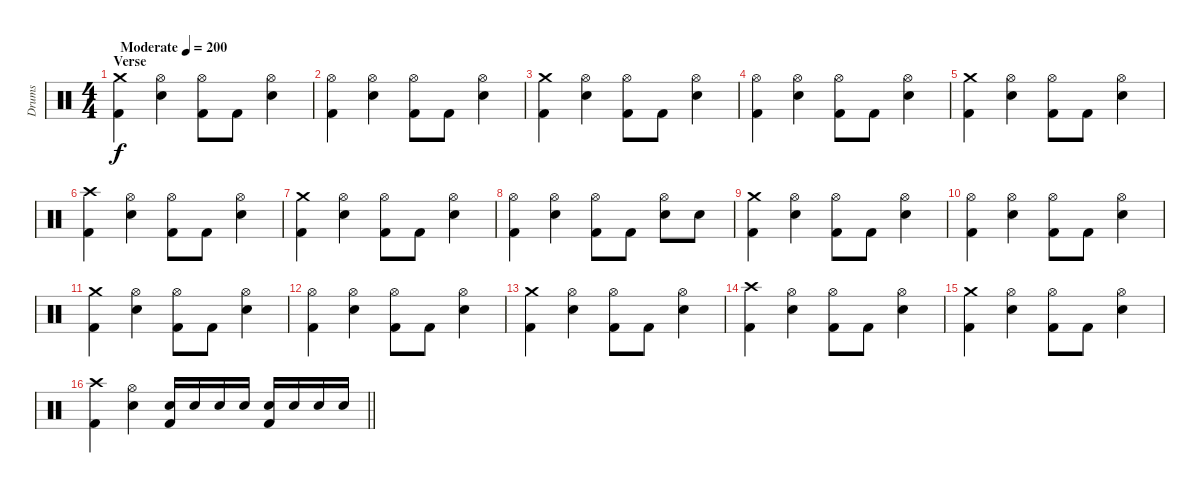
\track ("Drums" "Drums") {instrument percussion}
\staff {score}
\articulation defaults
\ts (4 4)
\section ("" "Verse")
\tempo (200 "Moderate")
\clef neutral
\ks c
("Crash medium (hit)" "Kick (hit) 2").4{dy f} ("Hi-Hat (open)" "Electric Snare (hit)").4 ("Hi-Hat (open)" "Kick (hit) 2").8 "Kick (hit) 2".8 ("Hi-Hat (open)" "Electric Snare (hit)").4 |
("Hi-Hat (open)" "Kick (hit) 2").4 ("Hi-Hat (open)" "Electric Snare (hit)").4 ("Hi-Hat (open)" "Kick (hit) 2").8 "Kick (hit) 2".8 ("Hi-Hat (open)" "Electric Snare (hit)").4 |
("Crash medium (hit)" "Kick (hit) 2").4 ("Hi-Hat (open)" "Electric Snare (hit)").4 ("Hi-Hat (open)" "Kick (hit) 2").8 "Kick (hit) 2".8 ("Hi-Hat (open)" "Electric Snare (hit)").4 |
("Hi-Hat (open)" "Kick (hit) 2").4 ("Hi-Hat (open)" "Electric Snare (hit)").4 ("Hi-Hat (open)" "Kick (hit) 2").8 "Kick (hit) 2".8 ("Hi-Hat (open)" "Electric Snare (hit)").4 |
("Crash medium (hit)" "Kick (hit) 2").4 ("Hi-Hat (open)" "Electric Snare (hit)").4 ("Hi-Hat (open)" "Kick (hit) 2").8 "Kick (hit) 2".8 ("Hi-Hat (open)" "Electric Snare (hit)").4 |
("Crash high (hit)" "Kick (hit) 2").4 ("Hi-Hat (open)" "Electric Snare (hit)").4 ("Hi-Hat (open)" "Kick (hit) 2").8 "Kick (hit) 2".8 ("Hi-Hat (open)" "Electric Snare (hit)").4 |
("Crash medium (hit)" "Kick (hit) 2").4 ("Hi-Hat (open)" "Electric Snare (hit)").4 ("Hi-Hat (open)" "Kick (hit) 2").8 "Kick (hit) 2".8 ("Hi-Hat (open)" "Electric Snare (hit)").4 |
("Hi-Hat (open)" "Kick (hit) 2").4 ("Hi-Hat (open)" "Electric Snare (hit)").4 ("Hi-Hat (open)" "Kick (hit) 2").8 "Kick (hit) 2".8 ("Hi-Hat (open)" "Electric Snare (hit)").8 "Electric Snare (hit)".8 |
("Crash medium (hit)" "Kick (hit) 2").4 ("Hi-Hat (open)" "Electric Snare (hit)").4 ("Hi-Hat (open)" "Kick (hit) 2").8 "Kick (hit) 2".8 ("Hi-Hat (open)" "Electric Snare (hit)").4 |
("Hi-Hat (open)" "Kick (hit) 2").4 ("Hi-Hat (open)" "Electric Snare (hit)").4 ("Hi-Hat (open)" "Kick (hit) 2").8 "Kick (hit) 2".8 ("Hi-Hat (open)" "Electric Snare (hit)").4 |
("Crash medium (hit)" "Kick (hit) 2").4 ("Hi-Hat (open)" "Electric Snare (hit)").4 ("Hi-Hat (open)" "Kick (hit) 2").8 "Kick (hit) 2".8 ("Hi-Hat (open)" "Electric Snare (hit)").4 |
("Hi-Hat (open)" "Kick (hit) 2").4 ("Hi-Hat (open)" "Electric Snare (hit)").4 ("Hi-Hat (open)" "Kick (hit) 2").8 "Kick (hit) 2".8 ("Hi-Hat (open)" "Electric Snare (hit)").4 |
("Crash medium (hit)" "Kick (hit) 2").4 ("Hi-Hat (open)" "Electric Snare (hit)").4 ("Hi-Hat (open)" "Kick (hit) 2").8 "Kick (hit) 2".8 ("Hi-Hat (open)" "Electric Snare (hit)").4 |
("Crash high (hit)" "Kick (hit) 2").4 ("Hi-Hat (open)" "Electric Snare (hit)").4 ("Hi-Hat (open)" "Kick (hit) 2").8 "Kick (hit) 2".8 ("Hi-Hat (open)" "Electric Snare (hit)").4 |
("Crash medium (hit)" "Kick (hit) 2").4 ("Hi-Hat (open)" "Electric Snare (hit)").4 ("Hi-Hat (open)" "Kick (hit) 2").8 "Kick (hit) 2".8 ("Hi-Hat (open)" "Electric Snare (hit)").4 |
\barLineRight lightlight
("Crash high (hit)" "Kick (hit) 2").4 ("Hi-Hat (open)" "Electric Snare (hit)").4 ("Electric Snare (hit)" "Kick (hit) 2").16 "Electric Snare (hit)".16 "Electric Snare (hit)".16 "Electric Snare (hit)".16 ("Electric Snare (hit)" "Kick (hit) 2").16 "Electric Snare (hit)".16 "Electric Snare (hit)".16 "Electric Snare (hit)".16
